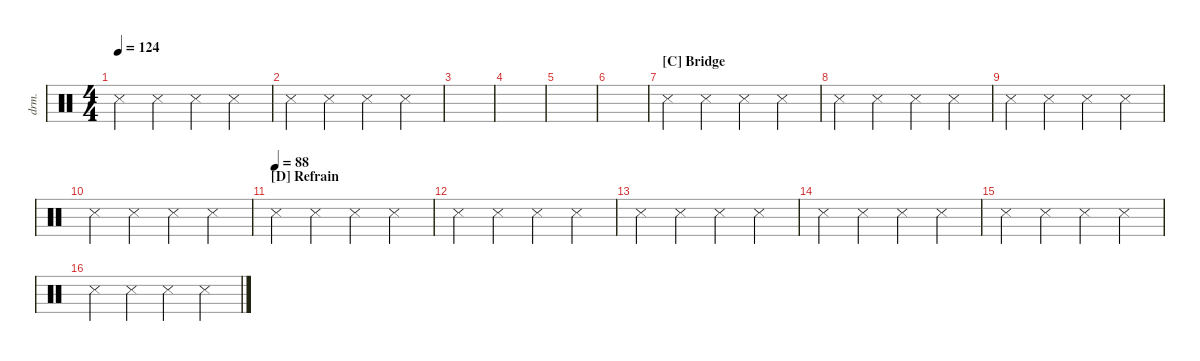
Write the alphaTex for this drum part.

\defaultSystemsLayout 4
\hideDynamics
\bracketExtendMode nobrackets
\otherSystemsTrackNameOrientation horizontal
\track ("Drumkit" "drm.") {instrument percussion}
\staff {score}
\articulation defaults
\ts (4 4)
\tempo 124
\clef neutral
\ks c "Metronome (hit)".4{dy mf} "Metronome (hit)".4 "Metronome (hit)".4 "Metronome (hit)".4
|
"Metronome (hit)".4 "Metronome (hit)".4 "Metronome (hit)".4 "Metronome (hit)".4 |
|
|
|
|
\section ("C" "Bridge")
"Metronome (hit)".4 "Metronome (hit)".4 "Metronome (hit)".4 "Metronome (hit)".4 |
"Metronome (hit)".4 "Metronome (hit)".4 "Metronome (hit)".4 "Metronome (hit)".4 |
"Metronome (hit)".4 "Metronome (hit)".4 "Metronome (hit)".4 "Metronome (hit)".4 |
"Metronome (hit)".4 "Metronome (hit)".4 "Metronome (hit)".4 "Metronome (hit)".4 |
\section ("D" "Refrain")
\tempo (88)
"Metronome (hit)".4 "Metronome (hit)".4 "Metronome (hit)".4 "Metronome (hit)".4 |
"Metronome (hit)".4 "Metronome (hit)".4 "Metronome (hit)".4 "Metronome (hit)".4 |
"Metronome (hit)".4 "Metronome (hit)".4 "Metronome (hit)".4 "Metronome (hit)".4 |
\beaming (8 2 2 2 2)
"Metronome (hit)".4 "Metronome (hit)".4 "Metronome (hit)".4 "Metronome (hit)".4 |
"Metronome (hit)".4 "Metronome (hit)".4 "Metronome (hit)".4 "Metronome (hit)".4 |
"Metronome (hit)".4 "Metronome (hit)".4 "Metronome (hit)".4 "Metronome (hit)".4
